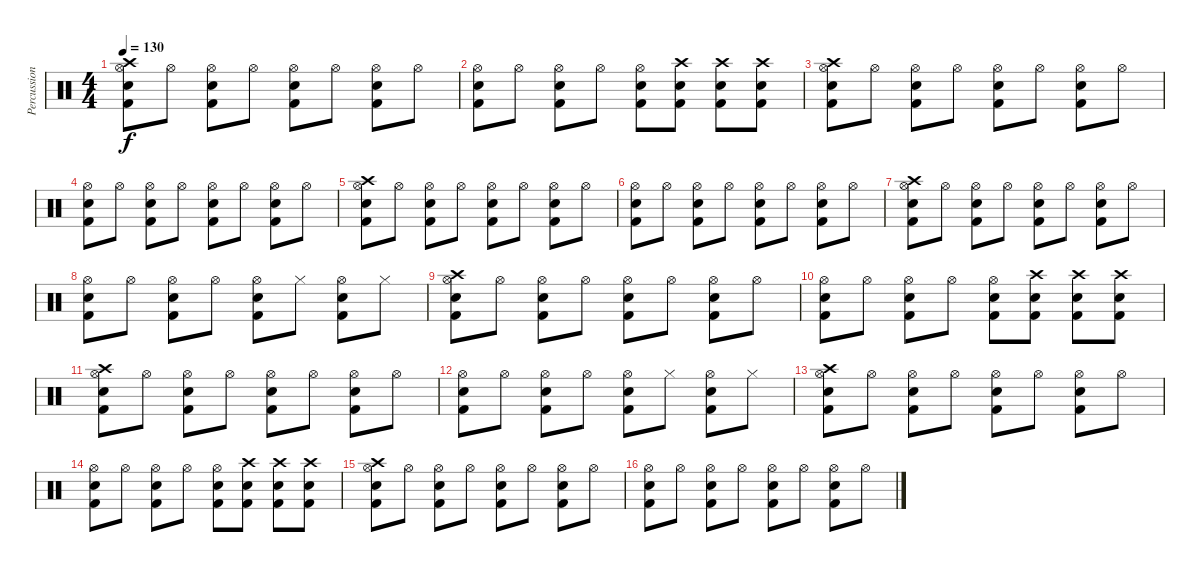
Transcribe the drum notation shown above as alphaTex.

\track ("Percussion" "Percussion") {instrument percussion}
\staff {score}
\articulation defaults
\ts (4 4)
\tempo 130
\clef neutral
\ks c
("Hi-Hat (open)" "Crash high (hit)" "Electric Snare (hit)" "Kick (hit) 2").8{dy f} "Hi-Hat (open)".8 ("Hi-Hat (open)" "Electric Snare (hit)" "Kick (hit) 2").8 "Hi-Hat (open)".8 ("Hi-Hat (open)" "Electric Snare (hit)" "Kick (hit) 2").8 "Hi-Hat (open)".8 ("Hi-Hat (open)" "Electric Snare (hit)" "Kick (hit) 2").8 "Hi-Hat (open)".8 |
("Hi-Hat (open)" "Electric Snare (hit)" "Kick (hit) 2").8 "Hi-Hat (open)".8 ("Hi-Hat (open)" "Electric Snare (hit)" "Kick (hit) 2").8 "Hi-Hat (open)".8 ("Hi-Hat (open)" "Electric Snare (hit)" "Kick (hit) 2").8 ("Crash high (hit)" "Electric Snare (hit)" "Kick (hit) 2").8 ("Crash high (hit)" "Electric Snare (hit)" "Kick (hit) 2").8 ("Crash high (hit)" "Electric Snare (hit)" "Kick (hit) 2").8 |
("Hi-Hat (open)" "Crash high (hit)" "Electric Snare (hit)" "Kick (hit) 2").8 "Hi-Hat (open)".8 ("Hi-Hat (open)" "Electric Snare (hit)" "Kick (hit) 2").8 "Hi-Hat (open)".8 ("Hi-Hat (open)" "Electric Snare (hit)" "Kick (hit) 2").8 "Hi-Hat (open)".8 ("Hi-Hat (open)" "Electric Snare (hit)" "Kick (hit) 2").8 "Hi-Hat (open)".8 |
("Hi-Hat (open)" "Electric Snare (hit)" "Kick (hit) 2").8 "Hi-Hat (open)".8 ("Hi-Hat (open)" "Electric Snare (hit)" "Kick (hit) 2").8 "Hi-Hat (open)".8 ("Hi-Hat (open)" "Electric Snare (hit)" "Kick (hit) 2").8 "Hi-Hat (open)".8 ("Hi-Hat (open)" "Electric Snare (hit)" "Kick (hit) 2").8 "Hi-Hat (open)".8 |
("Hi-Hat (open)" "Crash high (hit)" "Electric Snare (hit)" "Kick (hit) 2").8 "Hi-Hat (open)".8 ("Hi-Hat (open)" "Electric Snare (hit)" "Kick (hit) 2").8 "Hi-Hat (open)".8 ("Hi-Hat (open)" "Electric Snare (hit)" "Kick (hit) 2").8 "Hi-Hat (open)".8 ("Hi-Hat (open)" "Electric Snare (hit)" "Kick (hit) 2").8 "Hi-Hat (open)".8 |
("Hi-Hat (open)" "Electric Snare (hit)" "Kick (hit) 2").8 "Hi-Hat (open)".8 ("Hi-Hat (open)" "Electric Snare (hit)" "Kick (hit) 2").8 "Hi-Hat (open)".8 ("Hi-Hat (open)" "Electric Snare (hit)" "Kick (hit) 2").8 "Hi-Hat (open)".8 ("Hi-Hat (open)" "Electric Snare (hit)" "Kick (hit) 2").8 "Hi-Hat (open)".8 |
("Hi-Hat (open)" "Crash high (hit)" "Electric Snare (hit)" "Kick (hit) 2").8 "Hi-Hat (open)".8 ("Hi-Hat (open)" "Electric Snare (hit)" "Kick (hit) 2").8 "Hi-Hat (open)".8 ("Hi-Hat (open)" "Electric Snare (hit)" "Kick (hit) 2").8 "Hi-Hat (open)".8 ("Hi-Hat (open)" "Electric Snare (hit)" "Kick (hit) 2").8 "Hi-Hat (open)".8 |
("Hi-Hat (open)" "Electric Snare (hit)" "Kick (hit) 2").8 "Hi-Hat (open)".8 ("Hi-Hat (open)" "Electric Snare (hit)" "Kick (hit) 2").8 "Hi-Hat (open)".8 ("Hi-Hat (open)" "Electric Snare (hit)" "Kick (hit) 2").8 "Hi-Hat (closed)".8 ("Hi-Hat (open)" "Electric Snare (hit)" "Kick (hit) 2").8 "Hi-Hat (closed)".8 |
("Hi-Hat (open)" "Crash high (hit)" "Electric Snare (hit)" "Kick (hit) 2").8 "Hi-Hat (open)".8 ("Hi-Hat (open)" "Electric Snare (hit)" "Kick (hit) 2").8 "Hi-Hat (open)".8 ("Hi-Hat (open)" "Electric Snare (hit)" "Kick (hit) 2").8 "Hi-Hat (open)".8 ("Hi-Hat (open)" "Electric Snare (hit)" "Kick (hit) 2").8 "Hi-Hat (open)".8 |
("Hi-Hat (open)" "Electric Snare (hit)" "Kick (hit) 2").8 "Hi-Hat (open)".8 ("Hi-Hat (open)" "Electric Snare (hit)" "Kick (hit) 2").8 "Hi-Hat (open)".8 ("Hi-Hat (open)" "Electric Snare (hit)" "Kick (hit) 2").8 ("Crash high (hit)" "Electric Snare (hit)" "Kick (hit) 2").8 ("Crash high (hit)" "Electric Snare (hit)" "Kick (hit) 2").8 ("Crash high (hit)" "Electric Snare (hit)" "Kick (hit) 2").8 |
("Hi-Hat (open)" "Crash high (hit)" "Electric Snare (hit)" "Kick (hit) 2").8 "Hi-Hat (open)".8 ("Hi-Hat (open)" "Electric Snare (hit)" "Kick (hit) 2").8 "Hi-Hat (open)".8 ("Hi-Hat (open)" "Electric Snare (hit)" "Kick (hit) 2").8 "Hi-Hat (open)".8 ("Hi-Hat (open)" "Electric Snare (hit)" "Kick (hit) 2").8 "Hi-Hat (open)".8 |
("Hi-Hat (open)" "Electric Snare (hit)" "Kick (hit) 2").8 "Hi-Hat (open)".8 ("Hi-Hat (open)" "Electric Snare (hit)" "Kick (hit) 2").8 "Hi-Hat (open)".8 ("Hi-Hat (open)" "Electric Snare (hit)" "Kick (hit) 2").8 "Hi-Hat (closed)".8 ("Hi-Hat (open)" "Electric Snare (hit)" "Kick (hit) 2").8 "Hi-Hat (closed)".8 |
("Hi-Hat (open)" "Crash high (hit)" "Electric Snare (hit)" "Kick (hit) 2").8 "Hi-Hat (open)".8 ("Hi-Hat (open)" "Electric Snare (hit)" "Kick (hit) 2").8 "Hi-Hat (open)".8 ("Hi-Hat (open)" "Electric Snare (hit)" "Kick (hit) 2").8 "Hi-Hat (open)".8 ("Hi-Hat (open)" "Electric Snare (hit)" "Kick (hit) 2").8 "Hi-Hat (open)".8 |
("Hi-Hat (open)" "Electric Snare (hit)" "Kick (hit) 2").8 "Hi-Hat (open)".8 ("Hi-Hat (open)" "Electric Snare (hit)" "Kick (hit) 2").8 "Hi-Hat (open)".8 ("Hi-Hat (open)" "Electric Snare (hit)" "Kick (hit) 2").8 ("Crash high (hit)" "Electric Snare (hit)" "Kick (hit) 2").8 ("Crash high (hit)" "Electric Snare (hit)" "Kick (hit) 2").8 ("Crash high (hit)" "Electric Snare (hit)" "Kick (hit) 2").8 |
("Hi-Hat (open)" "Crash high (hit)" "Electric Snare (hit)" "Kick (hit) 2").8 "Hi-Hat (open)".8 ("Hi-Hat (open)" "Electric Snare (hit)" "Kick (hit) 2").8 "Hi-Hat (open)".8 ("Hi-Hat (open)" "Electric Snare (hit)" "Kick (hit) 2").8 "Hi-Hat (open)".8 ("Hi-Hat (open)" "Electric Snare (hit)" "Kick (hit) 2").8 "Hi-Hat (open)".8 |
("Hi-Hat (open)" "Electric Snare (hit)" "Kick (hit) 2").8 "Hi-Hat (open)".8 ("Hi-Hat (open)" "Electric Snare (hit)" "Kick (hit) 2").8 "Hi-Hat (open)".8 ("Hi-Hat (open)" "Electric Snare (hit)" "Kick (hit) 2").8 "Hi-Hat (open)".8 ("Hi-Hat (open)" "Electric Snare (hit)" "Kick (hit) 2").8 "Hi-Hat (open)".8
